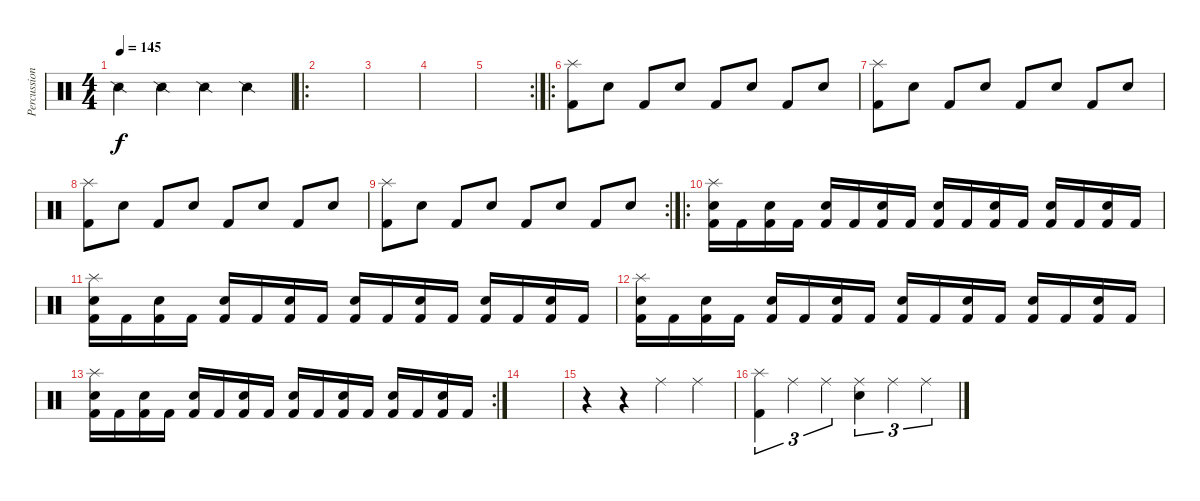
\track ("Percussions" "Percussion") {instrument percussion}
\staff {score}
\articulation defaults
\ts (4 4)
\tempo 145
\clef neutral
\ks c "Snare (side stick) 2".4{dy f} "Snare (side stick) 2".4 "Snare (side stick) 2".4 "Snare (side stick) 2".4
|
\ro
|
|
|
\rc 2
|
\ro
("Splash (hit)" "Kick (hit) 2").8 "Electric Snare (hit)".8 "Kick (hit) 2".8 "Electric Snare (hit)".8 "Kick (hit) 2".8 "Electric Snare (hit)".8 "Kick (hit) 2".8 "Electric Snare (hit)".8 |
("Splash (hit)" "Kick (hit) 2").8 "Electric Snare (hit)".8 "Kick (hit) 2".8 "Electric Snare (hit)".8 "Kick (hit) 2".8 "Electric Snare (hit)".8 "Kick (hit) 2".8 "Electric Snare (hit)".8 |
("Splash (hit)" "Kick (hit) 2").8 "Electric Snare (hit)".8 "Kick (hit) 2".8 "Electric Snare (hit)".8 "Kick (hit) 2".8 "Electric Snare (hit)".8 "Kick (hit) 2".8 "Electric Snare (hit)".8 |
\rc 2
("Splash (hit)" "Kick (hit) 2").8 "Electric Snare (hit)".8 "Kick (hit) 2".8 "Electric Snare (hit)".8 "Kick (hit) 2".8 "Electric Snare (hit)".8 "Kick (hit) 2".8 "Electric Snare (hit)".8 |
\ro
("Splash (hit)" "Electric Snare (hit)" "Kick (hit) 2").16 "Kick (hit) 2".16 ("Electric Snare (hit)" "Kick (hit) 2").16 "Kick (hit) 2".16 ("Electric Snare (hit)" "Kick (hit) 2").16 "Kick (hit) 2".16 ("Electric Snare (hit)" "Kick (hit) 2").16 "Kick (hit) 2".16 ("Electric Snare (hit)" "Kick (hit) 2").16 "Kick (hit) 2".16 ("Electric Snare (hit)" "Kick (hit) 2").16 "Kick (hit) 2".16 ("Electric Snare (hit)" "Kick (hit) 2").16 "Kick (hit) 2".16 ("Electric Snare (hit)" "Kick (hit) 2").16 "Kick (hit) 2".16 |
("Splash (hit)" "Electric Snare (hit)" "Kick (hit) 2").16 "Kick (hit) 2".16 ("Electric Snare (hit)" "Kick (hit) 2").16 "Kick (hit) 2".16 ("Electric Snare (hit)" "Kick (hit) 2").16 "Kick (hit) 2".16 ("Electric Snare (hit)" "Kick (hit) 2").16 "Kick (hit) 2".16 ("Electric Snare (hit)" "Kick (hit) 2").16 "Kick (hit) 2".16 ("Electric Snare (hit)" "Kick (hit) 2").16 "Kick (hit) 2".16 ("Electric Snare (hit)" "Kick (hit) 2").16 "Kick (hit) 2".16 ("Electric Snare (hit)" "Kick (hit) 2").16 "Kick (hit) 2".16 |
("Splash (hit)" "Electric Snare (hit)" "Kick (hit) 2").16 "Kick (hit) 2".16 ("Electric Snare (hit)" "Kick (hit) 2").16 "Kick (hit) 2".16 ("Electric Snare (hit)" "Kick (hit) 2").16 "Kick (hit) 2".16 ("Electric Snare (hit)" "Kick (hit) 2").16 "Kick (hit) 2".16 ("Electric Snare (hit)" "Kick (hit) 2").16 "Kick (hit) 2".16 ("Electric Snare (hit)" "Kick (hit) 2").16 "Kick (hit) 2".16 ("Electric Snare (hit)" "Kick (hit) 2").16 "Kick (hit) 2".16 ("Electric Snare (hit)" "Kick (hit) 2").16 "Kick (hit) 2".16 |
\rc 2
("Splash (hit)" "Electric Snare (hit)" "Kick (hit) 2").16 "Kick (hit) 2".16 ("Electric Snare (hit)" "Kick (hit) 2").16 "Kick (hit) 2".16 ("Electric Snare (hit)" "Kick (hit) 2").16 "Kick (hit) 2".16 ("Electric Snare (hit)" "Kick (hit) 2").16 "Kick (hit) 2".16 ("Electric Snare (hit)" "Kick (hit) 2").16 "Kick (hit) 2".16 ("Electric Snare (hit)" "Kick (hit) 2").16 "Kick (hit) 2".16 ("Electric Snare (hit)" "Kick (hit) 2").16 "Kick (hit) 2".16 ("Electric Snare (hit)" "Kick (hit) 2").16 "Kick (hit) 2".16 |
|
r.4 r.4 "Ride (middle)".4 "Ride (middle)".4 |
("Splash (hit)" "Kick (hit) 2").4{tu (3 2)} "Ride (middle)".4{tu (3 2)} "Ride (middle)".4{tu (3 2)} ("Ride (middle)" "Electric Snare (hit)").4{tu (3 2)} "Ride (middle)".4{tu (3 2)} "Ride (middle)".4{tu (3 2)}
